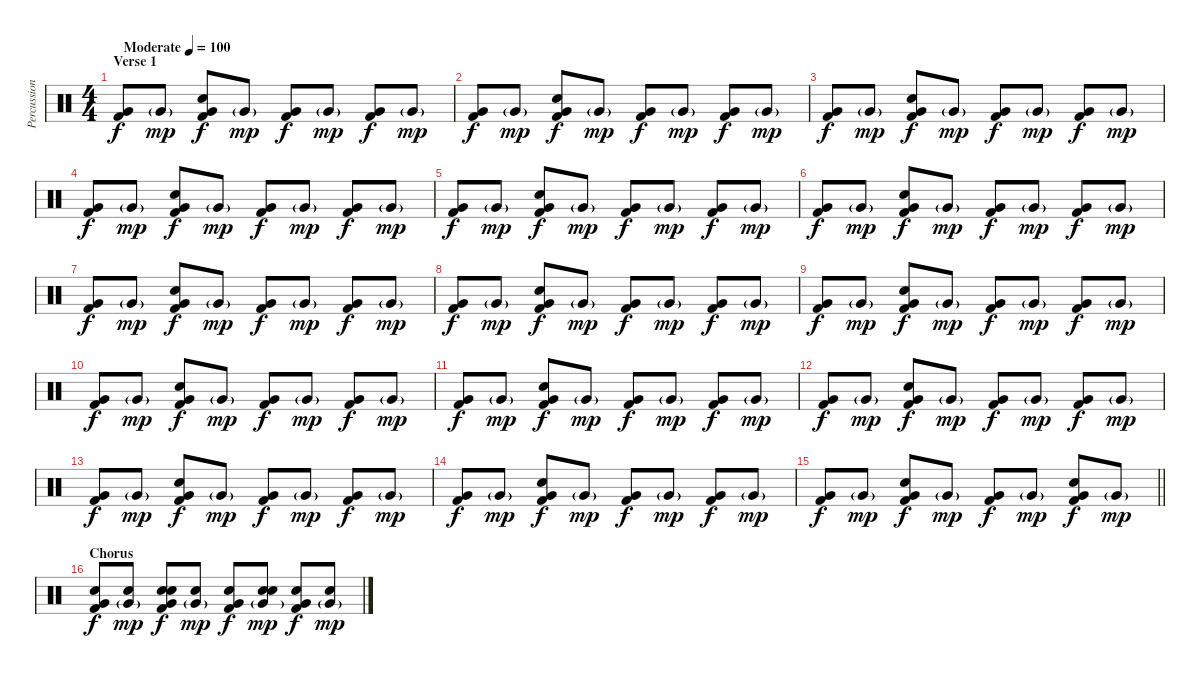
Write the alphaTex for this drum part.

\track ("Percussion" "Percussion") {instrument percussion}
\staff {score}
\articulation defaults
\ts (4 4)
\section ("" "Verse 1")
\tempo (100 "Moderate")
\clef neutral
\ks c
("Very Low Tom (hit)" "Kick (hit) 2").8{dy f} "Very Low Tom (hit)"{g}.8{dy mp} ("Snare (hit) 2" "Very Low Tom (hit)" "Kick (hit) 2").8{dy f} "Very Low Tom (hit)"{g}.8{dy mp} ("Very Low Tom (hit)" "Kick (hit) 2").8{dy f} "Very Low Tom (hit)"{g}.8{dy mp} ("Very Low Tom (hit)" "Kick (hit) 2").8{dy f} "Very Low Tom (hit)"{g}.8{dy mp} |
("Very Low Tom (hit)" "Kick (hit) 2").8{dy f} "Very Low Tom (hit)"{g}.8{dy mp} ("Snare (hit) 2" "Very Low Tom (hit)" "Kick (hit) 2").8{dy f} "Very Low Tom (hit)"{g}.8{dy mp} ("Very Low Tom (hit)" "Kick (hit) 2").8{dy f} "Very Low Tom (hit)"{g}.8{dy mp} ("Very Low Tom (hit)" "Kick (hit) 2").8{dy f} "Very Low Tom (hit)"{g}.8{dy mp} |
("Very Low Tom (hit)" "Kick (hit) 2").8{dy f} "Very Low Tom (hit)"{g}.8{dy mp} ("Snare (hit) 2" "Very Low Tom (hit)" "Kick (hit) 2").8{dy f} "Very Low Tom (hit)"{g}.8{dy mp} ("Very Low Tom (hit)" "Kick (hit) 2").8{dy f} "Very Low Tom (hit)"{g}.8{dy mp} ("Very Low Tom (hit)" "Kick (hit) 2").8{dy f} "Very Low Tom (hit)"{g}.8{dy mp} |
("Very Low Tom (hit)" "Kick (hit) 2").8{dy f} "Very Low Tom (hit)"{g}.8{dy mp} ("Snare (hit) 2" "Very Low Tom (hit)" "Kick (hit) 2").8{dy f} "Very Low Tom (hit)"{g}.8{dy mp} ("Very Low Tom (hit)" "Kick (hit) 2").8{dy f} "Very Low Tom (hit)"{g}.8{dy mp} ("Very Low Tom (hit)" "Kick (hit) 2").8{dy f} "Very Low Tom (hit)"{g}.8{dy mp} |
("Very Low Tom (hit)" "Kick (hit) 2").8{dy f} "Very Low Tom (hit)"{g}.8{dy mp} ("Snare (hit) 2" "Very Low Tom (hit)" "Kick (hit) 2").8{dy f} "Very Low Tom (hit)"{g}.8{dy mp} ("Very Low Tom (hit)" "Kick (hit) 2").8{dy f} "Very Low Tom (hit)"{g}.8{dy mp} ("Very Low Tom (hit)" "Kick (hit) 2").8{dy f} "Very Low Tom (hit)"{g}.8{dy mp} |
("Very Low Tom (hit)" "Kick (hit) 2").8{dy f} "Very Low Tom (hit)"{g}.8{dy mp} ("Snare (hit) 2" "Very Low Tom (hit)" "Kick (hit) 2").8{dy f} "Very Low Tom (hit)"{g}.8{dy mp} ("Very Low Tom (hit)" "Kick (hit) 2").8{dy f} "Very Low Tom (hit)"{g}.8{dy mp} ("Very Low Tom (hit)" "Kick (hit) 2").8{dy f} "Very Low Tom (hit)"{g}.8{dy mp} |
("Very Low Tom (hit)" "Kick (hit) 2").8{dy f} "Very Low Tom (hit)"{g}.8{dy mp} ("Snare (hit) 2" "Very Low Tom (hit)" "Kick (hit) 2").8{dy f} "Very Low Tom (hit)"{g}.8{dy mp} ("Very Low Tom (hit)" "Kick (hit) 2").8{dy f} "Very Low Tom (hit)"{g}.8{dy mp} ("Very Low Tom (hit)" "Kick (hit) 2").8{dy f} "Very Low Tom (hit)"{g}.8{dy mp} |
("Very Low Tom (hit)" "Kick (hit) 2").8{dy f} "Very Low Tom (hit)"{g}.8{dy mp} ("Snare (hit) 2" "Very Low Tom (hit)" "Kick (hit) 2").8{dy f} "Very Low Tom (hit)"{g}.8{dy mp} ("Very Low Tom (hit)" "Kick (hit) 2").8{dy f} "Very Low Tom (hit)"{g}.8{dy mp} ("Very Low Tom (hit)" "Kick (hit) 2").8{dy f} "Very Low Tom (hit)"{g}.8{dy mp} |
("Very Low Tom (hit)" "Kick (hit) 2").8{dy f} "Very Low Tom (hit)"{g}.8{dy mp} ("Snare (hit) 2" "Very Low Tom (hit)" "Kick (hit) 2").8{dy f} "Very Low Tom (hit)"{g}.8{dy mp} ("Very Low Tom (hit)" "Kick (hit) 2").8{dy f} "Very Low Tom (hit)"{g}.8{dy mp} ("Very Low Tom (hit)" "Kick (hit) 2").8{dy f} "Very Low Tom (hit)"{g}.8{dy mp} |
("Very Low Tom (hit)" "Kick (hit) 2").8{dy f} "Very Low Tom (hit)"{g}.8{dy mp} ("Snare (hit) 2" "Very Low Tom (hit)" "Kick (hit) 2").8{dy f} "Very Low Tom (hit)"{g}.8{dy mp} ("Very Low Tom (hit)" "Kick (hit) 2").8{dy f} "Very Low Tom (hit)"{g}.8{dy mp} ("Very Low Tom (hit)" "Kick (hit) 2").8{dy f} "Very Low Tom (hit)"{g}.8{dy mp} |
("Very Low Tom (hit)" "Kick (hit) 2").8{dy f} "Very Low Tom (hit)"{g}.8{dy mp} ("Snare (hit) 2" "Very Low Tom (hit)" "Kick (hit) 2").8{dy f} "Very Low Tom (hit)"{g}.8{dy mp} ("Very Low Tom (hit)" "Kick (hit) 2").8{dy f} "Very Low Tom (hit)"{g}.8{dy mp} ("Very Low Tom (hit)" "Kick (hit) 2").8{dy f} "Very Low Tom (hit)"{g}.8{dy mp} |
("Very Low Tom (hit)" "Kick (hit) 2").8{dy f} "Very Low Tom (hit)"{g}.8{dy mp} ("Snare (hit) 2" "Very Low Tom (hit)" "Kick (hit) 2").8{dy f} "Very Low Tom (hit)"{g}.8{dy mp} ("Very Low Tom (hit)" "Kick (hit) 2").8{dy f} "Very Low Tom (hit)"{g}.8{dy mp} ("Very Low Tom (hit)" "Kick (hit) 2").8{dy f} "Very Low Tom (hit)"{g}.8{dy mp} |
("Very Low Tom (hit)" "Kick (hit) 2").8{dy f} "Very Low Tom (hit)"{g}.8{dy mp} ("Snare (hit) 2" "Very Low Tom (hit)" "Kick (hit) 2").8{dy f} "Very Low Tom (hit)"{g}.8{dy mp} ("Very Low Tom (hit)" "Kick (hit) 2").8{dy f} "Very Low Tom (hit)"{g}.8{dy mp} ("Very Low Tom (hit)" "Kick (hit) 2").8{dy f} "Very Low Tom (hit)"{g}.8{dy mp} |
("Very Low Tom (hit)" "Kick (hit) 2").8{dy f} "Very Low Tom (hit)"{g}.8{dy mp} ("Snare (hit) 2" "Very Low Tom (hit)" "Kick (hit) 2").8{dy f} "Very Low Tom (hit)"{g}.8{dy mp} ("Very Low Tom (hit)" "Kick (hit) 2").8{dy f} "Very Low Tom (hit)"{g}.8{dy mp} ("Very Low Tom (hit)" "Kick (hit) 2").8{dy f} "Very Low Tom (hit)"{g}.8{dy mp} |
\barLineRight lightlight
("Very Low Tom (hit)" "Kick (hit) 2").8{dy f} "Very Low Tom (hit)"{g}.8{dy mp} ("Snare (hit) 2" "Very Low Tom (hit)" "Kick (hit) 2").8{dy f} "Very Low Tom (hit)"{g}.8{dy mp} ("Very Low Tom (hit)" "Kick (hit) 2").8{dy f} "Very Low Tom (hit)"{g}.8{dy mp} ("Snare (hit) 2" "Very Low Tom (hit)" "Kick (hit) 2").8{dy f} "Very Low Tom (hit)"{g}.8{dy mp} |
\section ("" "Chorus")
("Hand Clap (hit)" "Very Low Tom (hit)" "Kick (hit) 2").8{dy f} ("Hand Clap (hit)" "Very Low Tom (hit)"{g}).8{dy mp} ("Hand Clap (hit)" "Snare (hit) 2" "Very Low Tom (hit)" "Kick (hit) 2").8{dy f} ("Hand Clap (hit)" "Very Low Tom (hit)"{g}).8{dy mp} ("Hand Clap (hit)" "Very Low Tom (hit)" "Kick (hit) 2").8{dy f} ("Hand Clap (hit)" "Snare (hit) 2" "Very Low Tom (hit)"{g}).8{dy mp} ("Hand Clap (hit)" "Very Low Tom (hit)" "Kick (hit) 2").8{dy f} ("Hand Clap (hit)" "Very Low Tom (hit)"{g}).8{dy mp}
